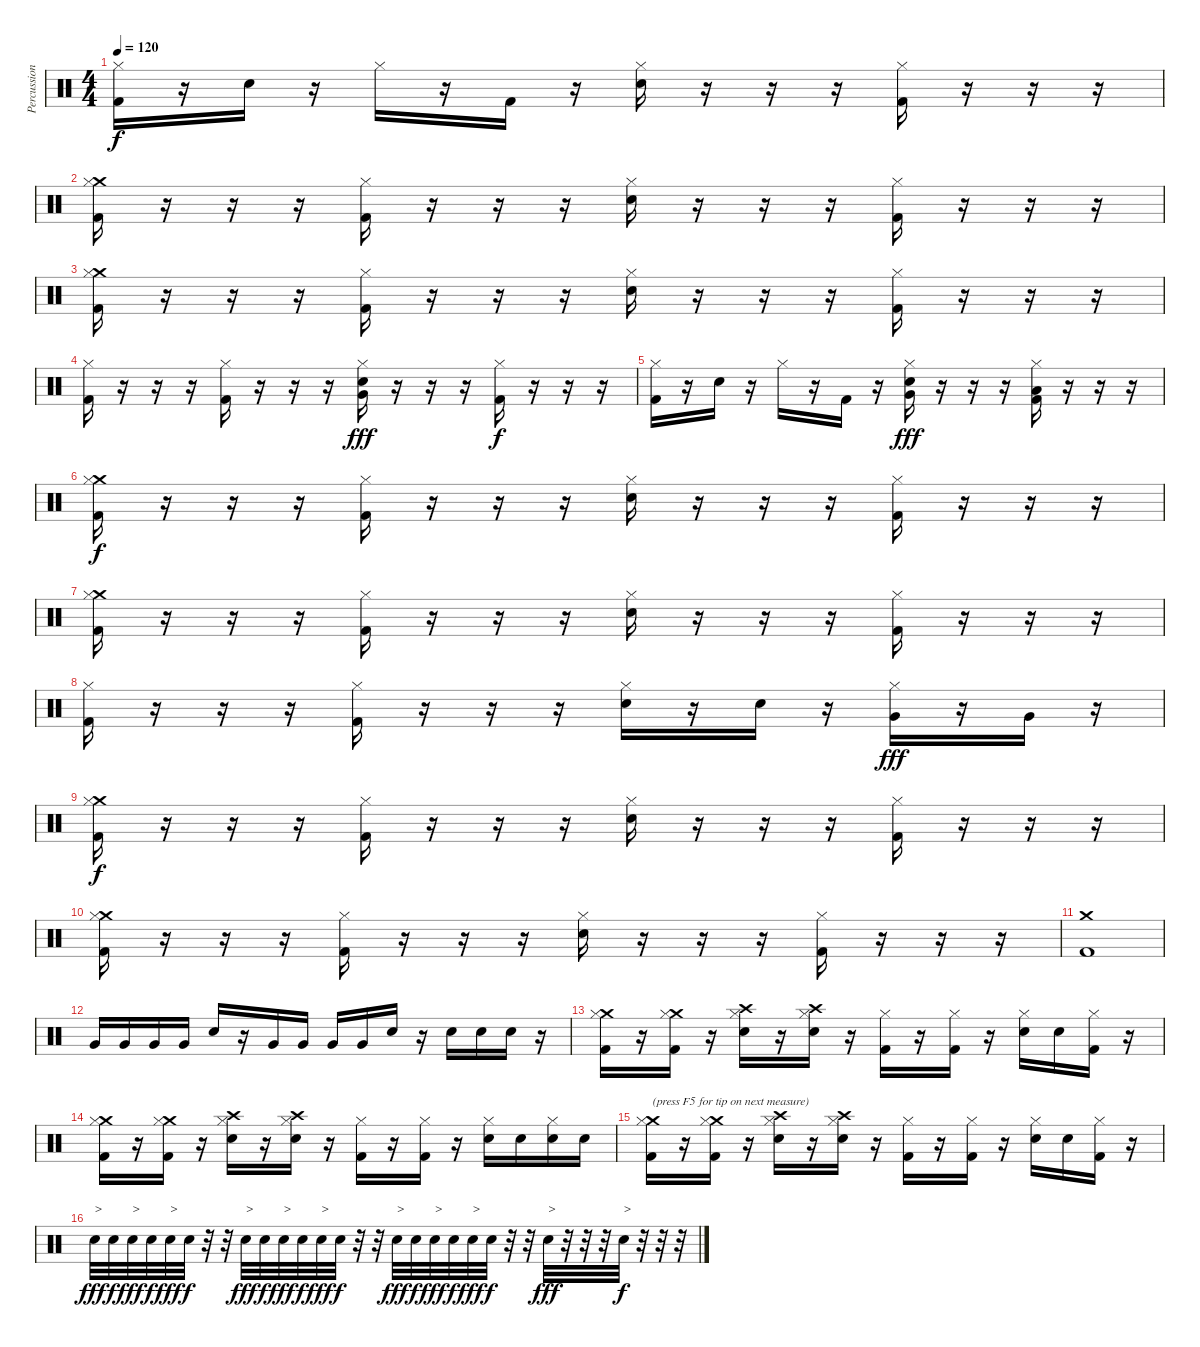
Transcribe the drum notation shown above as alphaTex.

\track ("Percussion" "Percussion") {instrument percussion}
\staff {score}
\articulation defaults
\ts (4 4)
\tempo 120
\clef neutral
\ks c
("Hi-Hat (closed)" "Kick (hit) 2").16{dy f} r.16 "Snare (hit) 2".16 r.16 "Hi-Hat (closed)".16 r.16 "Kick (hit) 2".16 r.16 ("Hi-Hat (closed)" "Snare (hit) 2").16 r.16 r.16 r.16 ("Hi-Hat (closed)" "Kick (hit) 2").16 r.16 r.16 r.16 |
("Crash medium (hit)" "Hi-Hat (closed)" "Kick (hit) 2").16 r.16 r.16 r.16 ("Hi-Hat (closed)" "Kick (hit) 2").16 r.16 r.16 r.16 ("Hi-Hat (closed)" "Snare (hit) 2").16 r.16 r.16 r.16 ("Hi-Hat (closed)" "Kick (hit) 2").16 r.16 r.16 r.16 |
("Crash medium (hit)" "Hi-Hat (closed)" "Kick (hit) 2").16 r.16 r.16 r.16 ("Hi-Hat (closed)" "Kick (hit) 2").16 r.16 r.16 r.16 ("Hi-Hat (closed)" "Snare (hit) 2").16 r.16 r.16 r.16 ("Hi-Hat (closed)" "Kick (hit) 2").16 r.16 r.16 r.16 |
("Hi-Hat (closed)" "Kick (hit) 2").16 r.16 r.16 r.16 ("Hi-Hat (closed)" "Kick (hit) 2").16 r.16 r.16 r.16 ("Hi-Hat (closed)" "Very Low Tom (hit)" "Snare (hit) 2").16{dy fff} r.16 r.16 r.16 ("Hi-Hat (closed)" "Kick (hit) 2").16{dy f} r.16 r.16 r.16 |
("Hi-Hat (closed)" "Kick (hit) 2").16 r.16 "Snare (hit) 2".16 r.16 "Hi-Hat (closed)".16 r.16 "Kick (hit) 2".16 r.16 ("Hi-Hat (closed)" "Very Low Tom (hit)" "Snare (hit) 2").16{dy fff} r.16 r.16 r.16 ("Hi-Hat (closed)" "Low Floor Tom (hit)" "Kick (hit) 2").16 r.16 r.16 r.16 |
("Crash medium (hit)" "Hi-Hat (closed)" "Kick (hit) 2").16{dy f} r.16 r.16 r.16 ("Hi-Hat (closed)" "Kick (hit) 2").16 r.16 r.16 r.16 ("Hi-Hat (closed)" "Snare (hit) 2").16 r.16 r.16 r.16 ("Hi-Hat (closed)" "Kick (hit) 2").16 r.16 r.16 r.16 |
("Crash medium (hit)" "Hi-Hat (closed)" "Kick (hit) 2").16 r.16 r.16 r.16 ("Hi-Hat (closed)" "Kick (hit) 2").16 r.16 r.16 r.16 ("Hi-Hat (closed)" "Snare (hit) 2").16 r.16 r.16 r.16 ("Hi-Hat (closed)" "Kick (hit) 2").16 r.16 r.16 r.16 |
("Hi-Hat (closed)" "Kick (hit) 2").16 r.16 r.16 r.16 ("Hi-Hat (closed)" "Kick (hit) 2").16 r.16 r.16 r.16 ("Hi-Hat (closed)" "Snare (hit) 2").16 r.16 "Snare (hit) 2".16 r.16 ("Hi-Hat (closed)" "Very Low Tom (hit)").16{dy fff} r.16 "Very Low Tom (hit)".16 r.16 |
("Crash medium (hit)" "Hi-Hat (closed)" "Kick (hit) 2").16{dy f} r.16 r.16 r.16 ("Hi-Hat (closed)" "Kick (hit) 2").16 r.16 r.16 r.16 ("Hi-Hat (closed)" "Snare (hit) 2").16 r.16 r.16 r.16 ("Hi-Hat (closed)" "Kick (hit) 2").16 r.16 r.16 r.16 |
("Crash medium (hit)" "Hi-Hat (closed)" "Kick (hit) 2").16 r.16 r.16 r.16 ("Hi-Hat (closed)" "Kick (hit) 2").16 r.16 r.16 r.16 ("Hi-Hat (closed)" "Snare (hit) 2").16 r.16 r.16 r.16 ("Hi-Hat (closed)" "Kick (hit) 2").16 r.16 r.16 r.16 |
("Crash medium (hit)" "Kick (hit) 2").1 |
"Very Low Tom (hit)".16 "Very Low Tom (hit)".16 "Very Low Tom (hit)".16 "Very Low Tom (hit)".16 "Snare (hit) 2".16 r.16 "Very Low Tom (hit)".16 "Very Low Tom (hit)".16 "Very Low Tom (hit)".16 "Very Low Tom (hit)".16 "Snare (hit) 2".16 r.16 "Snare (hit) 2".16 "Snare (hit) 2".16 "Snare (hit) 2".16 r.16 |
("Crash medium (hit)" "Hi-Hat (closed)" "Kick (hit) 2").16 r.16 ("Crash medium (hit)" "Hi-Hat (closed)" "Kick (hit) 2").16 r.16 ("Crash high (hit)" "Hi-Hat (closed)" "Snare (hit) 2").16 r.16 ("Crash high (hit)" "Hi-Hat (closed)" "Snare (hit) 2").16 r.16 ("Hi-Hat (closed)" "Kick (hit) 2").16 r.16 ("Hi-Hat (closed)" "Kick (hit) 2").16 r.16 ("Hi-Hat (closed)" "Snare (hit) 2").16 "Snare (hit) 2".16 ("Hi-Hat (closed)" "Kick (hit) 2").16 r.16 |
("Crash medium (hit)" "Hi-Hat (closed)" "Kick (hit) 2").16 r.16 ("Crash medium (hit)" "Hi-Hat (closed)" "Kick (hit) 2").16 r.16 ("Crash high (hit)" "Hi-Hat (closed)" "Snare (hit) 2").16 r.16 ("Crash high (hit)" "Hi-Hat (closed)" "Snare (hit) 2").16 r.16 ("Hi-Hat (closed)" "Kick (hit) 2").16 r.16 ("Hi-Hat (closed)" "Kick (hit) 2").16 r.16 ("Hi-Hat (closed)" "Snare (hit) 2").16 "Snare (hit) 2".16 ("Hi-Hat (closed)" "Snare (hit) 2").16 "Snare (hit) 2".16 |
("Crash medium (hit)" "Hi-Hat (closed)" "Kick (hit) 2").16{txt "(press F5 for tip on next measure)"} r.16 ("Crash medium (hit)" "Hi-Hat (closed)" "Kick (hit) 2").16 r.16 ("Crash high (hit)" "Hi-Hat (closed)" "Snare (hit) 2").16 r.16 ("Crash high (hit)" "Hi-Hat (closed)" "Snare (hit) 2").16 r.16 ("Hi-Hat (closed)" "Kick (hit) 2").16 r.16 ("Hi-Hat (closed)" "Kick (hit) 2").16 r.16 ("Hi-Hat (closed)" "Snare (hit) 2").16 "Snare (hit) 2".16 ("Hi-Hat (closed)" "Kick (hit) 2").16 r.16 |
"Snare (hit) 2".32{txt ">" dy fff} "Snare (hit) 2".32{dy f} "Snare (hit) 2".32{txt ">" dy fff} "Snare (hit) 2".32{dy f} "Snare (hit) 2".32{txt ">" dy fff} "Snare (hit) 2".32{dy f} r.32 r.32 "Snare (hit) 2".32{txt ">" dy fff} "Snare (hit) 2".32{dy f} "Snare (hit) 2".32{txt ">" dy fff} "Snare (hit) 2".32{dy f} "Snare (hit) 2".32{txt ">" dy fff} "Snare (hit) 2".32{dy f} r.32 r.32 "Snare (hit) 2".32{txt ">" dy fff} "Snare (hit) 2".32{dy f} "Snare (hit) 2".32{txt ">" dy fff} "Snare (hit) 2".32{dy f} "Snare (hit) 2".32{txt ">" dy fff} "Snare (hit) 2".32{dy f} r.32 r.32 "Snare (hit) 2".32{txt ">" dy fff} r.32 r.32 r.32 "Snare (hit) 2".32{txt ">" dy f} r.32 r.32 r.32
